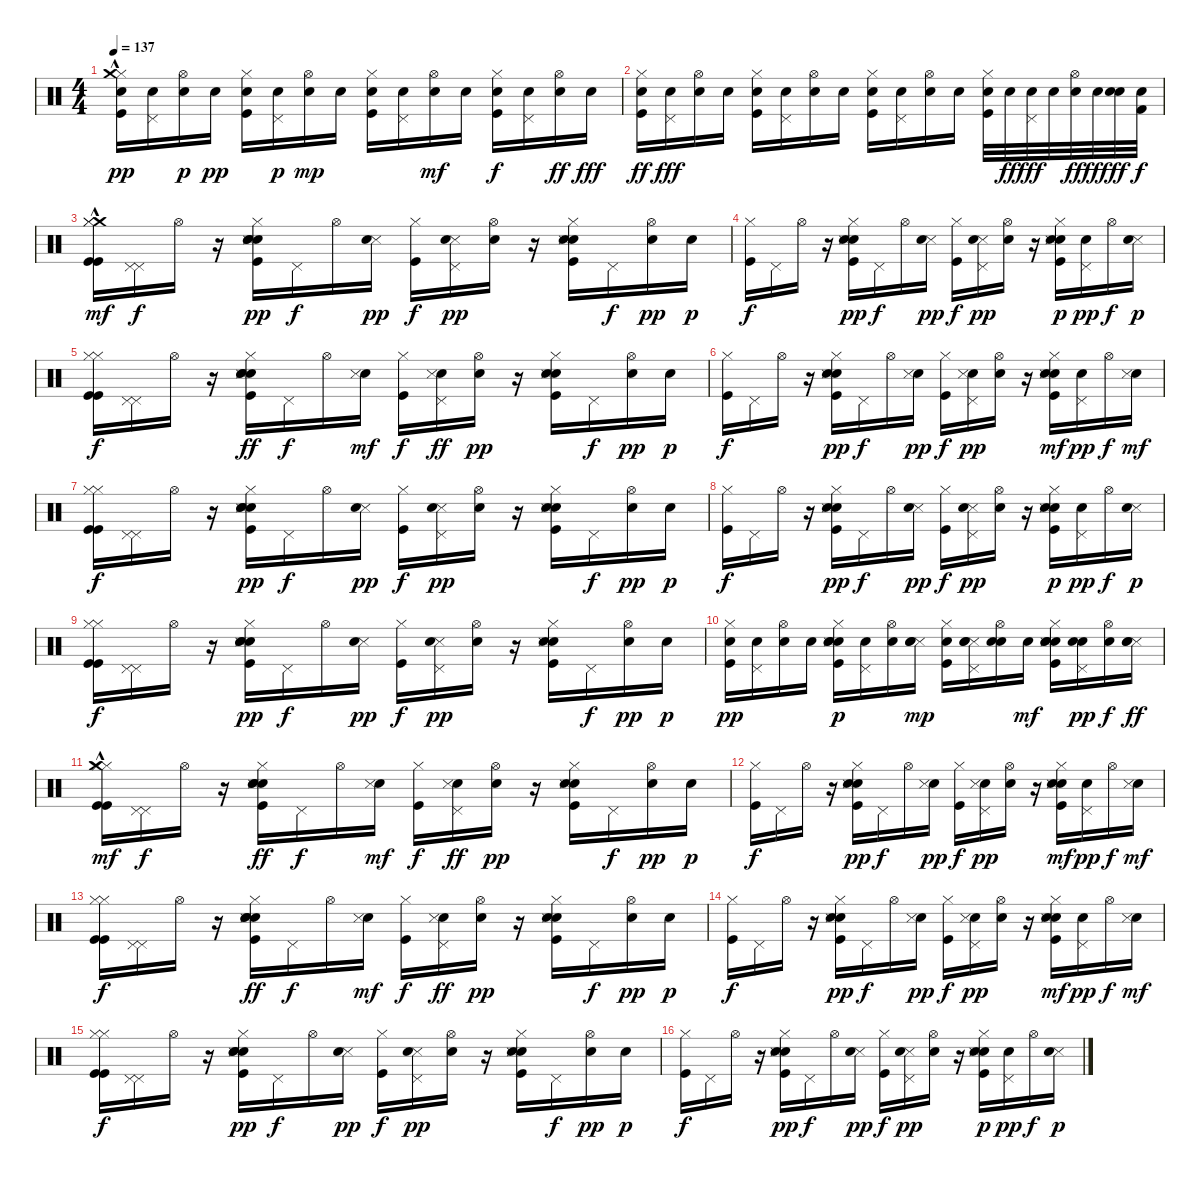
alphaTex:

\track "" {instrument percussion}
\staff {score}
\articulation defaults
\ts (4 4)
\tempo 137
\clef neutral
\ks c
("Hi-Hat (closed)" "Kick (hit)" "Crash medium (hit)"{hac} "Snare (hit) 2").16{dy pp volume 13} ("Pedal Hi-Hat (hit)" "Snare (hit) 2").16 ("Hi-Hat (open)" "Snare (hit) 2").16{dy p} "Snare (hit) 2".16{dy pp} ("Hi-Hat (closed)" "Kick (hit)" "Snare (hit) 2").16 ("Pedal Hi-Hat (hit)" "Snare (hit) 2").16{dy p} ("Hi-Hat (open)" "Snare (hit) 2").16{dy mp} "Snare (hit) 2".16 ("Hi-Hat (closed)" "Kick (hit)" "Snare (hit) 2").16 ("Pedal Hi-Hat (hit)" "Snare (hit) 2").16 ("Hi-Hat (open)" "Snare (hit) 2").16{dy mf} "Snare (hit) 2".16 ("Kick (hit)" "Hi-Hat (closed)" "Snare (hit) 2").16{dy f} ("Pedal Hi-Hat (hit)" "Snare (hit) 2").16 ("Hi-Hat (open)" "Snare (hit) 2").16{dy ff} "Snare (hit) 2".16{dy fff} |
("Kick (hit)" "Hi-Hat (closed)" "Snare (hit) 2").16{dy ff} ("Pedal Hi-Hat (hit)" "Snare (hit) 2").16{dy fff} ("Hi-Hat (open)" "Snare (hit) 2").16 "Snare (hit) 2".16 ("Kick (hit)" "Hi-Hat (closed)" "Snare (hit) 2").16 ("Pedal Hi-Hat (hit)" "Snare (hit) 2").16 ("Hi-Hat (open)" "Snare (hit) 2").16 "Snare (hit) 2".16 ("Kick (hit)" "Hi-Hat (closed)" "Snare (hit) 2").16 ("Pedal Hi-Hat (hit)" "Snare (hit) 2").16 ("Hi-Hat (open)" "Snare (hit) 2").16 "Snare (hit) 2".16 ("Kick (hit)" "Hi-Hat (closed)" "Snare (hit) 2").32 "Snare (hit) 2".32{dy ff} ("Pedal Hi-Hat (hit)" "Snare (hit) 2").32{dy fff} "Snare (hit) 2".32 ("Hi-Hat (open)" "Snare (hit) 2").32{dy ff} "Snare (hit) 2".32{dy fff} ("Metronome (bell)" "Snare (hit) 2").32{dy ff} ("Snare (hit) 2" "Kick (hit) 2").32{dy f} |
("Crash medium (hit)"{hac} "Hi-Hat (closed)" "Kick (hit)" "Kick (hit)" "Hi-Hat (closed)").16{dy mf volume 13} ("Pedal Hi-Hat (hit)" "Pedal Hi-Hat (hit)").16{dy f} "Hi-Hat (open)".16 r.16 ("Hand Clap (hit)" "Kick (hit)" "Hi-Hat (closed)" "Snare (side stick) 3" "Metronome (bell)" "Metronome (bell)").16{dy pp} "Pedal Hi-Hat (hit)".16{dy f} "Hi-Hat (open)".16 ("Snare (side stick) 3" "Metronome (bell)").16{dy pp} ("Kick (hit)" "Hi-Hat (closed)").16{dy f} ("Pedal Hi-Hat (hit)" "Snare (side stick) 3" "Metronome (bell)").16{dy pp} ("Hi-Hat (open)" "Metronome (bell)").16 r.16 ("Hand Clap (hit)" "Hi-Hat (closed)" "Kick (hit)" "Snare (side stick) 3" "Metronome (bell)").16 "Pedal Hi-Hat (hit)".16{dy f} ("Hi-Hat (open)" "Metronome (bell)").16{dy pp} "Metronome (bell)".16{dy p} |
("Hi-Hat (closed)" "Kick (hit)").16{dy f} "Pedal Hi-Hat (hit)".16 "Hi-Hat (open)".16 r.16 ("Hand Clap (hit)" "Kick (hit)" "Hi-Hat (closed)" "Snare (side stick) 3" "Metronome (bell)").16{dy pp} "Pedal Hi-Hat (hit)".16{dy f} "Hi-Hat (open)".16 ("Snare (side stick) 3" "Metronome (bell)").16{dy pp} ("Kick (hit)" "Hi-Hat (closed)").16{dy f} ("Pedal Hi-Hat (hit)" "Snare (side stick) 3" "Metronome (bell)").16{dy pp} ("Hi-Hat (open)" "Metronome (bell)").16 r.16 ("Hand Clap (hit)" "Hi-Hat (closed)" "Kick (hit)" "Snare (side stick) 3" "Metronome (bell)").16{dy p} ("Pedal Hi-Hat (hit)" "Metronome (bell)").16{dy pp} "Hi-Hat (open)".16{dy f} ("Snare (side stick) 3" "Metronome (bell)").16{dy p} |
("Hi-Hat (closed)" "Kick (hit)" "Kick (hit)" "Hi-Hat (closed)").16{dy f volume 13} ("Pedal Hi-Hat (hit)" "Pedal Hi-Hat (hit)").16 "Hi-Hat (open)".16 r.16 ("Hand Clap (hit)" "Kick (hit)" "Hi-Hat (closed)" "Metronome (bell)" "Metronome (bell)" "Snare (side stick) 3").16{dy ff} "Pedal Hi-Hat (hit)".16{dy f} "Hi-Hat (open)".16 ("Metronome (bell)" "Snare (side stick) 3").16{dy mf} ("Kick (hit)" "Hi-Hat (closed)").16{dy f} ("Pedal Hi-Hat (hit)" "Metronome (bell)" "Snare (side stick) 3").16{dy ff} ("Hi-Hat (open)" "Metronome (bell)").16{dy pp} r.16 ("Hand Clap (hit)" "Hi-Hat (closed)" "Kick (hit)" "Metronome (bell)" "Snare (side stick) 3").16 "Pedal Hi-Hat (hit)".16{dy f} ("Hi-Hat (open)" "Metronome (bell)").16{dy pp} "Metronome (bell)".16{dy p} |
("Hi-Hat (closed)" "Kick (hit)").16{dy f} "Pedal Hi-Hat (hit)".16 "Hi-Hat (open)".16 r.16 ("Hand Clap (hit)" "Kick (hit)" "Hi-Hat (closed)" "Metronome (bell)" "Snare (side stick) 3").16{dy pp} "Pedal Hi-Hat (hit)".16{dy f} "Hi-Hat (open)".16 ("Metronome (bell)" "Snare (side stick) 3").16{dy pp} ("Kick (hit)" "Hi-Hat (closed)").16{dy f} ("Pedal Hi-Hat (hit)" "Metronome (bell)" "Snare (side stick) 3").16{dy pp} ("Hi-Hat (open)" "Metronome (bell)").16 r.16 ("Hand Clap (hit)" "Hi-Hat (closed)" "Kick (hit)" "Metronome (bell)" "Snare (side stick) 3").16{dy mf} ("Pedal Hi-Hat (hit)" "Metronome (bell)").16{dy pp} "Hi-Hat (open)".16{dy f} ("Metronome (bell)" "Snare (side stick) 3").16{dy mf} |
("Hi-Hat (closed)" "Kick (hit)" "Kick (hit)" "Hi-Hat (closed)").16{dy f volume 13} ("Pedal Hi-Hat (hit)" "Pedal Hi-Hat (hit)").16 "Hi-Hat (open)".16 r.16 ("Hand Clap (hit)" "Kick (hit)" "Hi-Hat (closed)" "Snare (side stick) 3" "Metronome (bell)" "Metronome (bell)").16{dy pp} "Pedal Hi-Hat (hit)".16{dy f} "Hi-Hat (open)".16 ("Snare (side stick) 3" "Metronome (bell)").16{dy pp} ("Kick (hit)" "Hi-Hat (closed)").16{dy f} ("Pedal Hi-Hat (hit)" "Snare (side stick) 3" "Metronome (bell)").16{dy pp} ("Hi-Hat (open)" "Metronome (bell)").16 r.16 ("Hand Clap (hit)" "Hi-Hat (closed)" "Kick (hit)" "Snare (side stick) 3" "Metronome (bell)").16 "Pedal Hi-Hat (hit)".16{dy f} ("Hi-Hat (open)" "Metronome (bell)").16{dy pp} "Metronome (bell)".16{dy p} |
("Hi-Hat (closed)" "Kick (hit)").16{dy f} "Pedal Hi-Hat (hit)".16 "Hi-Hat (open)".16 r.16 ("Hand Clap (hit)" "Kick (hit)" "Hi-Hat (closed)" "Snare (side stick) 3" "Metronome (bell)").16{dy pp} "Pedal Hi-Hat (hit)".16{dy f} "Hi-Hat (open)".16 ("Snare (side stick) 3" "Metronome (bell)").16{dy pp} ("Kick (hit)" "Hi-Hat (closed)").16{dy f} ("Pedal Hi-Hat (hit)" "Snare (side stick) 3" "Metronome (bell)").16{dy pp} ("Hi-Hat (open)" "Metronome (bell)").16 r.16 ("Hand Clap (hit)" "Hi-Hat (closed)" "Kick (hit)" "Snare (side stick) 3" "Metronome (bell)").16{dy p} ("Pedal Hi-Hat (hit)" "Metronome (bell)").16{dy pp} "Hi-Hat (open)".16{dy f} ("Snare (side stick) 3" "Metronome (bell)").16{dy p} |
("Hi-Hat (closed)" "Kick (hit)" "Kick (hit)" "Hi-Hat (closed)").16{dy f volume 13} ("Pedal Hi-Hat (hit)" "Pedal Hi-Hat (hit)").16 "Hi-Hat (open)".16 r.16 ("Hand Clap (hit)" "Kick (hit)" "Hi-Hat (closed)" "Snare (side stick) 3" "Metronome (bell)" "Metronome (bell)").16{dy pp} "Pedal Hi-Hat (hit)".16{dy f} "Hi-Hat (open)".16 ("Snare (side stick) 3" "Metronome (bell)").16{dy pp} ("Kick (hit)" "Hi-Hat (closed)").16{dy f} ("Pedal Hi-Hat (hit)" "Snare (side stick) 3" "Metronome (bell)").16{dy pp} ("Hi-Hat (open)" "Metronome (bell)").16 r.16 ("Hand Clap (hit)" "Hi-Hat (closed)" "Kick (hit)" "Snare (side stick) 3" "Metronome (bell)").16 "Pedal Hi-Hat (hit)".16{dy f} ("Hi-Hat (open)" "Metronome (bell)").16{dy pp} "Metronome (bell)".16{dy p} |
("Hi-Hat (closed)" "Kick (hit)" "Snare (hit) 2").16{dy pp} ("Pedal Hi-Hat (hit)" "Snare (hit) 2").16 ("Hi-Hat (open)" "Snare (hit) 2").16 "Snare (hit) 2".16 ("Hand Clap (hit)" "Kick (hit)" "Hi-Hat (closed)" "Snare (side stick) 3" "Metronome (bell)" "Snare (hit) 2").16{dy p} ("Pedal Hi-Hat (hit)" "Snare (hit) 2").16 ("Hi-Hat (open)" "Snare (hit) 2").16 ("Snare (side stick) 3" "Metronome (bell)" "Snare (hit) 2").16{dy mp} ("Kick (hit)" "Hi-Hat (closed)" "Snare (hit) 2").16 ("Pedal Hi-Hat (hit)" "Snare (side stick) 3" "Metronome (bell)" "Snare (hit) 2").16 ("Hi-Hat (open)" "Metronome (bell)" "Snare (hit) 2").16 "Snare (hit) 2".16{dy mf} ("Hand Clap (hit)" "Hi-Hat (closed)" "Kick (hit)" "Snare (side stick) 3" "Metronome (bell)" "Snare (hit) 2").16 ("Pedal Hi-Hat (hit)" "Metronome (bell)" "Snare (hit) 2").16{dy pp} ("Hi-Hat (open)" "Snare (hit) 2").16{dy f} ("Snare (side stick) 3" "Metronome (bell)" "Snare (hit) 2").16{dy ff} |
("Hi-Hat (closed)" "Kick (hit)" "Kick (hit)" "Hi-Hat (closed)" "Crash medium (hit)"{hac}).16{dy mf volume 13} ("Pedal Hi-Hat (hit)" "Pedal Hi-Hat (hit)").16{dy f} "Hi-Hat (open)".16 r.16 ("Hand Clap (hit)" "Kick (hit)" "Hi-Hat (closed)" "Metronome (bell)" "Metronome (bell)" "Snare (side stick) 3").16{dy ff} "Pedal Hi-Hat (hit)".16{dy f} "Hi-Hat (open)".16 ("Metronome (bell)" "Snare (side stick) 3").16{dy mf} ("Kick (hit)" "Hi-Hat (closed)").16{dy f} ("Pedal Hi-Hat (hit)" "Metronome (bell)" "Snare (side stick) 3").16{dy ff} ("Hi-Hat (open)" "Metronome (bell)").16{dy pp} r.16 ("Hand Clap (hit)" "Hi-Hat (closed)" "Kick (hit)" "Metronome (bell)" "Snare (side stick) 3").16 "Pedal Hi-Hat (hit)".16{dy f} ("Hi-Hat (open)" "Metronome (bell)").16{dy pp} "Metronome (bell)".16{dy p} |
("Hi-Hat (closed)" "Kick (hit)").16{dy f} "Pedal Hi-Hat (hit)".16 "Hi-Hat (open)".16 r.16 ("Hand Clap (hit)" "Kick (hit)" "Hi-Hat (closed)" "Metronome (bell)" "Snare (side stick) 3").16{dy pp} "Pedal Hi-Hat (hit)".16{dy f} "Hi-Hat (open)".16 ("Metronome (bell)" "Snare (side stick) 3").16{dy pp} ("Kick (hit)" "Hi-Hat (closed)").16{dy f} ("Pedal Hi-Hat (hit)" "Metronome (bell)" "Snare (side stick) 3").16{dy pp} ("Hi-Hat (open)" "Metronome (bell)").16 r.16 ("Hand Clap (hit)" "Hi-Hat (closed)" "Kick (hit)" "Metronome (bell)" "Snare (side stick) 3").16{dy mf} ("Pedal Hi-Hat (hit)" "Metronome (bell)").16{dy pp} "Hi-Hat (open)".16{dy f} ("Metronome (bell)" "Snare (side stick) 3").16{dy mf} |
("Hi-Hat (closed)" "Kick (hit)" "Kick (hit)" "Hi-Hat (closed)").16{dy f volume 13} ("Pedal Hi-Hat (hit)" "Pedal Hi-Hat (hit)").16 "Hi-Hat (open)".16 r.16 ("Hand Clap (hit)" "Kick (hit)" "Hi-Hat (closed)" "Metronome (bell)" "Metronome (bell)" "Snare (side stick) 3").16{dy ff} "Pedal Hi-Hat (hit)".16{dy f} "Hi-Hat (open)".16 ("Metronome (bell)" "Snare (side stick) 3").16{dy mf} ("Kick (hit)" "Hi-Hat (closed)").16{dy f} ("Pedal Hi-Hat (hit)" "Metronome (bell)" "Snare (side stick) 3").16{dy ff} ("Hi-Hat (open)" "Metronome (bell)").16{dy pp} r.16 ("Hand Clap (hit)" "Hi-Hat (closed)" "Kick (hit)" "Metronome (bell)" "Snare (side stick) 3").16 "Pedal Hi-Hat (hit)".16{dy f} ("Hi-Hat (open)" "Metronome (bell)").16{dy pp} "Metronome (bell)".16{dy p} |
("Hi-Hat (closed)" "Kick (hit)").16{dy f} "Pedal Hi-Hat (hit)".16 "Hi-Hat (open)".16 r.16 ("Hand Clap (hit)" "Kick (hit)" "Hi-Hat (closed)" "Metronome (bell)" "Snare (side stick) 3").16{dy pp} "Pedal Hi-Hat (hit)".16{dy f} "Hi-Hat (open)".16 ("Metronome (bell)" "Snare (side stick) 3").16{dy pp} ("Kick (hit)" "Hi-Hat (closed)").16{dy f} ("Pedal Hi-Hat (hit)" "Metronome (bell)" "Snare (side stick) 3").16{dy pp} ("Hi-Hat (open)" "Metronome (bell)").16 r.16 ("Hand Clap (hit)" "Hi-Hat (closed)" "Kick (hit)" "Metronome (bell)" "Snare (side stick) 3").16{dy mf} ("Pedal Hi-Hat (hit)" "Metronome (bell)").16{dy pp} "Hi-Hat (open)".16{dy f} ("Metronome (bell)" "Snare (side stick) 3").16{dy mf} |
("Hi-Hat (closed)" "Kick (hit)" "Kick (hit)" "Hi-Hat (closed)").16{dy f volume 13} ("Pedal Hi-Hat (hit)" "Pedal Hi-Hat (hit)").16 "Hi-Hat (open)".16 r.16 ("Hand Clap (hit)" "Kick (hit)" "Hi-Hat (closed)" "Snare (side stick) 3" "Metronome (bell)" "Metronome (bell)").16{dy pp} "Pedal Hi-Hat (hit)".16{dy f} "Hi-Hat (open)".16 ("Snare (side stick) 3" "Metronome (bell)").16{dy pp} ("Kick (hit)" "Hi-Hat (closed)").16{dy f} ("Pedal Hi-Hat (hit)" "Snare (side stick) 3" "Metronome (bell)").16{dy pp} ("Hi-Hat (open)" "Metronome (bell)").16 r.16 ("Hand Clap (hit)" "Hi-Hat (closed)" "Kick (hit)" "Snare (side stick) 3" "Metronome (bell)").16 "Pedal Hi-Hat (hit)".16{dy f} ("Hi-Hat (open)" "Metronome (bell)").16{dy pp} "Metronome (bell)".16{dy p} |
("Hi-Hat (closed)" "Kick (hit)").16{dy f} "Pedal Hi-Hat (hit)".16 "Hi-Hat (open)".16 r.16 ("Hand Clap (hit)" "Kick (hit)" "Hi-Hat (closed)" "Snare (side stick) 3" "Metronome (bell)").16{dy pp} "Pedal Hi-Hat (hit)".16{dy f} "Hi-Hat (open)".16 ("Snare (side stick) 3" "Metronome (bell)").16{dy pp} ("Kick (hit)" "Hi-Hat (closed)").16{dy f} ("Pedal Hi-Hat (hit)" "Snare (side stick) 3" "Metronome (bell)").16{dy pp} ("Hi-Hat (open)" "Metronome (bell)").16 r.16 ("Hand Clap (hit)" "Hi-Hat (closed)" "Kick (hit)" "Snare (side stick) 3" "Metronome (bell)").16{dy p} ("Pedal Hi-Hat (hit)" "Metronome (bell)").16{dy pp} "Hi-Hat (open)".16{dy f} ("Snare (side stick) 3" "Metronome (bell)").16{dy p}
